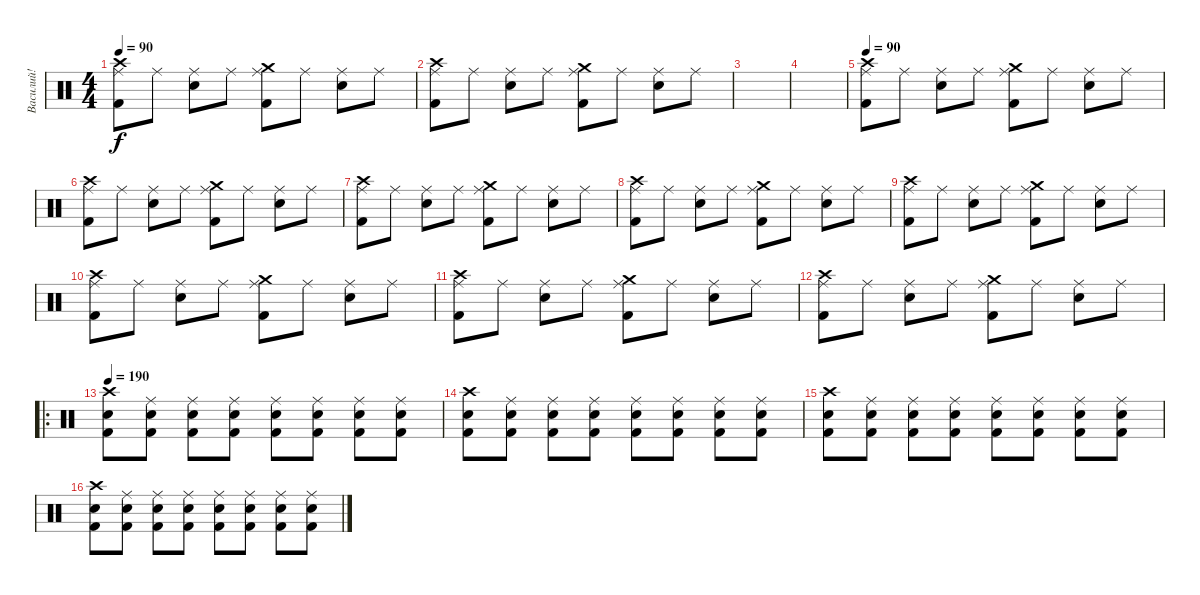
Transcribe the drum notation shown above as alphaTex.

\track ("Василий!" "Василий!") {instrument percussion}
\staff {score}
\articulation defaults
\ts (4 4)
\tempo 90
\clef neutral
\ks c
("Ride (middle)" "Kick (hit) 2" "Crash high (hit)").8{dy f} "Ride (middle)".8 ("Ride (middle)" "Electric Snare (hit)").8 "Ride (middle)".8 ("Ride (middle)" "Kick (hit) 2" "Crash medium (hit)").8 "Ride (middle)".8 ("Ride (middle)" "Electric Snare (hit)").8 "Ride (middle)".8 |
("Ride (middle)" "Kick (hit) 2" "Crash high (hit)").8 "Ride (middle)".8 ("Ride (middle)" "Electric Snare (hit)").8 "Ride (middle)".8 ("Ride (middle)" "Kick (hit) 2" "Crash medium (hit)").8 "Ride (middle)".8 ("Ride (middle)" "Electric Snare (hit)").8 "Ride (middle)".8 |
|
|
\tempo 90
("Ride (middle)" "Kick (hit) 2" "Crash high (hit)").8 "Ride (middle)".8 ("Ride (middle)" "Electric Snare (hit)").8 "Ride (middle)".8 ("Ride (middle)" "Kick (hit) 2" "Crash medium (hit)").8 "Ride (middle)".8 ("Ride (middle)" "Electric Snare (hit)").8 "Ride (middle)".8 |
("Ride (middle)" "Kick (hit) 2" "Crash high (hit)").8 "Ride (middle)".8 ("Ride (middle)" "Electric Snare (hit)").8 "Ride (middle)".8 ("Ride (middle)" "Kick (hit) 2" "Crash medium (hit)").8 "Ride (middle)".8 ("Ride (middle)" "Electric Snare (hit)").8 "Ride (middle)".8 |
("Ride (middle)" "Kick (hit) 2" "Crash high (hit)").8 "Ride (middle)".8 ("Ride (middle)" "Electric Snare (hit)").8 "Ride (middle)".8 ("Ride (middle)" "Kick (hit) 2" "Crash medium (hit)").8 "Ride (middle)".8 ("Ride (middle)" "Electric Snare (hit)").8 "Ride (middle)".8 |
("Ride (middle)" "Kick (hit) 2" "Crash high (hit)").8 "Ride (middle)".8 ("Ride (middle)" "Electric Snare (hit)").8 "Ride (middle)".8 ("Ride (middle)" "Kick (hit) 2" "Crash medium (hit)").8 "Ride (middle)".8 ("Ride (middle)" "Electric Snare (hit)").8 "Ride (middle)".8 |
("Ride (middle)" "Kick (hit) 2" "Crash high (hit)").8 "Ride (middle)".8 ("Ride (middle)" "Electric Snare (hit)").8 "Ride (middle)".8 ("Ride (middle)" "Kick (hit) 2" "Crash medium (hit)").8 "Ride (middle)".8 ("Ride (middle)" "Electric Snare (hit)").8 "Ride (middle)".8 |
("Ride (middle)" "Kick (hit) 2" "Crash high (hit)").8 "Ride (middle)".8 ("Ride (middle)" "Electric Snare (hit)").8 "Ride (middle)".8 ("Ride (middle)" "Kick (hit) 2" "Crash medium (hit)").8 "Ride (middle)".8 ("Ride (middle)" "Electric Snare (hit)").8 "Ride (middle)".8 |
("Ride (middle)" "Kick (hit) 2" "Crash high (hit)").8 "Ride (middle)".8 ("Ride (middle)" "Electric Snare (hit)").8 "Ride (middle)".8 ("Ride (middle)" "Kick (hit) 2" "Crash medium (hit)").8 "Ride (middle)".8 ("Ride (middle)" "Electric Snare (hit)").8 "Ride (middle)".8 |
("Ride (middle)" "Kick (hit) 2" "Crash high (hit)").8 "Ride (middle)".8 ("Ride (middle)" "Electric Snare (hit)").8 "Ride (middle)".8 ("Ride (middle)" "Kick (hit) 2" "Crash medium (hit)").8 "Ride (middle)".8 ("Ride (middle)" "Electric Snare (hit)").8 "Ride (middle)".8 |
\ro
\tempo 190
("Kick (hit) 2" "Electric Snare (hit)" "Crash high (hit)").8 ("Kick (hit) 2" "Electric Snare (hit)" "Ride (middle)").8 ("Kick (hit) 2" "Electric Snare (hit)" "Ride (middle)").8 ("Kick (hit) 2" "Electric Snare (hit)" "Ride (middle)").8 ("Kick (hit) 2" "Electric Snare (hit)" "Ride (middle)").8 ("Kick (hit) 2" "Electric Snare (hit)" "Ride (middle)").8 ("Kick (hit) 2" "Electric Snare (hit)" "Ride (middle)").8 ("Kick (hit) 2" "Electric Snare (hit)" "Ride (middle)").8 |
("Kick (hit) 2" "Electric Snare (hit)" "Crash high (hit)").8 ("Kick (hit) 2" "Electric Snare (hit)" "Ride (middle)").8 ("Kick (hit) 2" "Electric Snare (hit)" "Ride (middle)").8 ("Kick (hit) 2" "Electric Snare (hit)" "Ride (middle)").8 ("Kick (hit) 2" "Electric Snare (hit)" "Ride (middle)").8 ("Kick (hit) 2" "Electric Snare (hit)" "Ride (middle)").8 ("Kick (hit) 2" "Electric Snare (hit)" "Ride (middle)").8 ("Kick (hit) 2" "Electric Snare (hit)" "Ride (middle)").8 |
("Kick (hit) 2" "Electric Snare (hit)" "Crash high (hit)").8 ("Kick (hit) 2" "Electric Snare (hit)" "Ride (middle)").8 ("Kick (hit) 2" "Electric Snare (hit)" "Ride (middle)").8 ("Kick (hit) 2" "Electric Snare (hit)" "Ride (middle)").8 ("Kick (hit) 2" "Electric Snare (hit)" "Ride (middle)").8 ("Kick (hit) 2" "Electric Snare (hit)" "Ride (middle)").8 ("Kick (hit) 2" "Electric Snare (hit)" "Ride (middle)").8 ("Kick (hit) 2" "Electric Snare (hit)" "Ride (middle)").8 |
("Kick (hit) 2" "Electric Snare (hit)" "Crash high (hit)").8 ("Kick (hit) 2" "Electric Snare (hit)" "Ride (middle)").8 ("Kick (hit) 2" "Electric Snare (hit)" "Ride (middle)").8 ("Kick (hit) 2" "Electric Snare (hit)" "Ride (middle)").8 ("Kick (hit) 2" "Electric Snare (hit)" "Ride (middle)").8 ("Kick (hit) 2" "Electric Snare (hit)" "Ride (middle)").8 ("Kick (hit) 2" "Electric Snare (hit)" "Ride (middle)").8 ("Kick (hit) 2" "Electric Snare (hit)" "Ride (middle)").8
